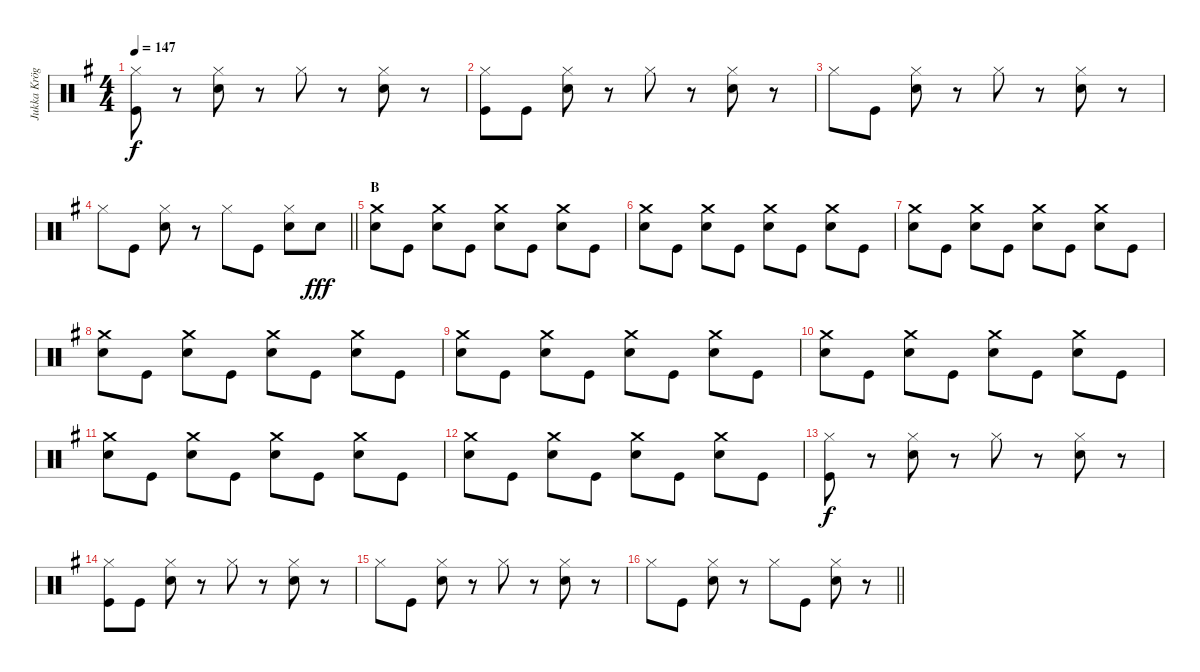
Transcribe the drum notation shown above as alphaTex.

\track ("Jukka Kröger" "Jukka Krög") {instrument percussion}
\staff {score}
\articulation defaults
\ts (4 4)
\tempo 147
\clef neutral
\ks eminor
("Hi-Hat (closed)" "Kick (hit)").8{dy f} r.8 ("Hi-Hat (closed)" "Snare (hit) 2").8 r.8 "Hi-Hat (closed)".8 r.8 ("Hi-Hat (closed)" "Snare (hit) 2").8 r.8 |
("Hi-Hat (closed)" "Kick (hit)").8 "Kick (hit)".8 ("Hi-Hat (closed)" "Snare (hit) 2").8 r.8 "Hi-Hat (closed)".8 r.8 ("Hi-Hat (closed)" "Snare (hit) 2").8 r.8 |
"Hi-Hat (closed)".8 "Kick (hit)".8 ("Hi-Hat (closed)" "Snare (hit) 2").8 r.8 "Hi-Hat (closed)".8 r.8 ("Hi-Hat (closed)" "Snare (hit) 2").8 r.8 |
\barLineRight lightlight "Hi-Hat (closed)".8 "Kick (hit)".8
("Hi-Hat (closed)" "Snare (hit) 2").8 r.8 "Hi-Hat (closed)".8 "Kick (hit)".8 ("Hi-Hat (closed)" "Snare (hit) 2").8 "Snare (hit) 2".8{dy fff} |
\section ("" "B")
("Crash medium (hit)" "Snare (hit) 2").8 "Kick (hit)".8 ("Crash medium (hit)" "Snare (hit) 2").8 "Kick (hit)".8 ("Crash medium (hit)" "Snare (hit) 2").8 "Kick (hit)".8 ("Crash medium (hit)" "Snare (hit) 2").8 "Kick (hit)".8 |
("Crash medium (hit)" "Snare (hit) 2").8 "Kick (hit)".8 ("Crash medium (hit)" "Snare (hit) 2").8 "Kick (hit)".8 ("Crash medium (hit)" "Snare (hit) 2").8 "Kick (hit)".8 ("Crash medium (hit)" "Snare (hit) 2").8 "Kick (hit)".8 |
("Crash medium (hit)" "Snare (hit) 2").8 "Kick (hit)".8 ("Crash medium (hit)" "Snare (hit) 2").8 "Kick (hit)".8 ("Crash medium (hit)" "Snare (hit) 2").8 "Kick (hit)".8 ("Crash medium (hit)" "Snare (hit) 2").8 "Kick (hit)".8 |
("Crash medium (hit)" "Snare (hit) 2").8 "Kick (hit)".8 ("Crash medium (hit)" "Snare (hit) 2").8 "Kick (hit)".8 ("Crash medium (hit)" "Snare (hit) 2").8 "Kick (hit)".8 ("Crash medium (hit)" "Snare (hit) 2").8 "Kick (hit)".8 |
("Crash medium (hit)" "Snare (hit) 2").8 "Kick (hit)".8 ("Crash medium (hit)" "Snare (hit) 2").8 "Kick (hit)".8 ("Crash medium (hit)" "Snare (hit) 2").8 "Kick (hit)".8 ("Crash medium (hit)" "Snare (hit) 2").8 "Kick (hit)".8 |
("Crash medium (hit)" "Snare (hit) 2").8 "Kick (hit)".8 ("Crash medium (hit)" "Snare (hit) 2").8 "Kick (hit)".8 ("Crash medium (hit)" "Snare (hit) 2").8 "Kick (hit)".8 ("Crash medium (hit)" "Snare (hit) 2").8 "Kick (hit)".8 |
("Crash medium (hit)" "Snare (hit) 2").8 "Kick (hit)".8 ("Crash medium (hit)" "Snare (hit) 2").8 "Kick (hit)".8 ("Crash medium (hit)" "Snare (hit) 2").8 "Kick (hit)".8 ("Crash medium (hit)" "Snare (hit) 2").8 "Kick (hit)".8 |
("Crash medium (hit)" "Snare (hit) 2").8 "Kick (hit)".8 ("Crash medium (hit)" "Snare (hit) 2").8 "Kick (hit)".8 ("Crash medium (hit)" "Snare (hit) 2").8 "Kick (hit)".8 ("Crash medium (hit)" "Snare (hit) 2").8 "Kick (hit)".8 |
("Hi-Hat (closed)" "Kick (hit)").8{dy f} r.8 ("Hi-Hat (closed)" "Snare (hit) 2").8 r.8 "Hi-Hat (closed)".8 r.8 ("Hi-Hat (closed)" "Snare (hit) 2").8 r.8 |
("Hi-Hat (closed)" "Kick (hit)").8 "Kick (hit)".8 ("Hi-Hat (closed)" "Snare (hit) 2").8 r.8 "Hi-Hat (closed)".8 r.8 ("Hi-Hat (closed)" "Snare (hit) 2").8 r.8 |
"Hi-Hat (closed)".8 "Kick (hit)".8 ("Hi-Hat (closed)" "Snare (hit) 2").8 r.8 "Hi-Hat (closed)".8 r.8 ("Hi-Hat (closed)" "Snare (hit) 2").8 r.8 |
\barLineRight lightlight "Hi-Hat (closed)".8 "Kick (hit)".8
("Hi-Hat (closed)" "Snare (hit) 2").8 r.8 "Hi-Hat (closed)".8 "Kick (hit)".8 ("Hi-Hat (closed)" "Snare (hit) 2").8 r.8
